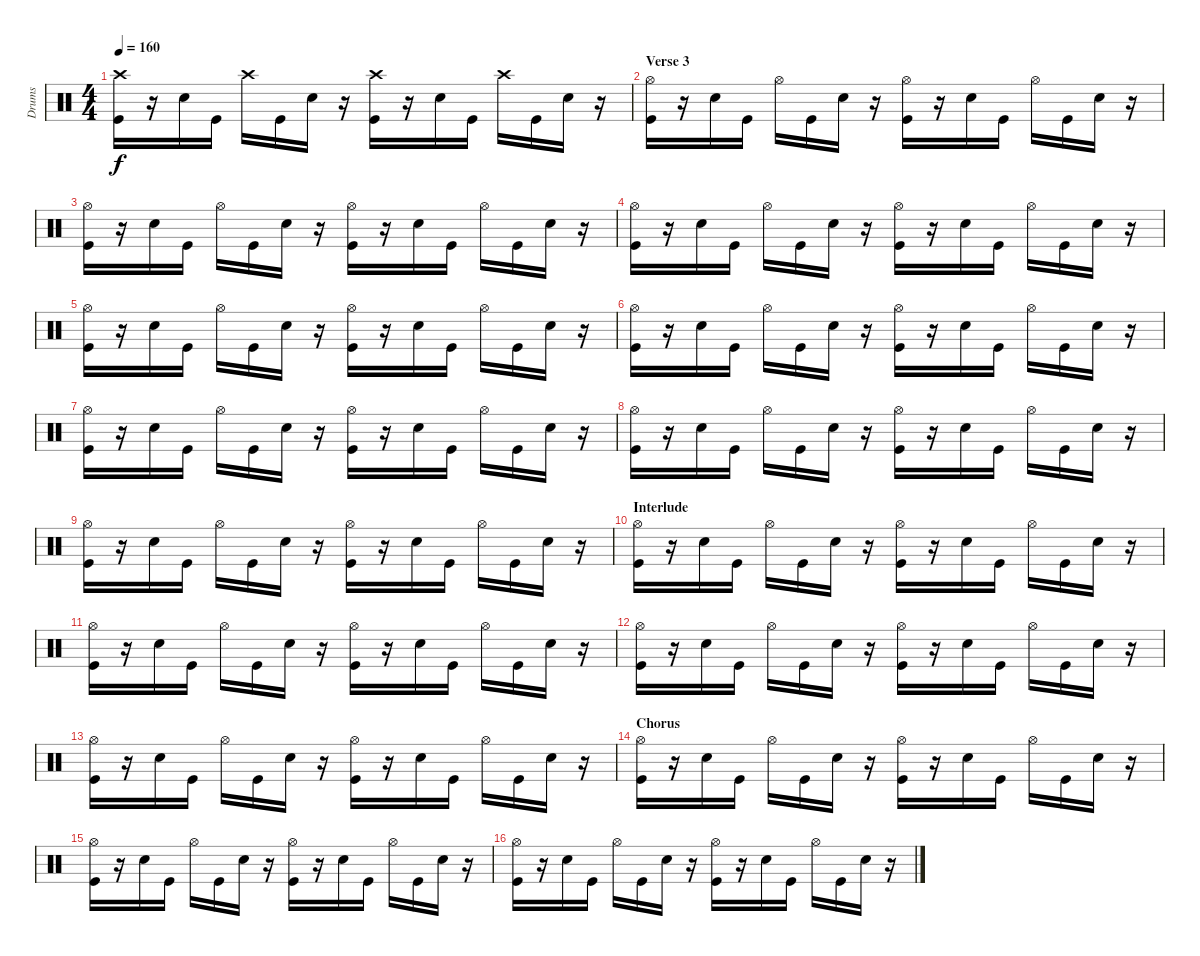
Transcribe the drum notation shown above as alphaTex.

\track ("Drums" "Drums") {instrument percussion}
\staff {score}
\articulation defaults
\ts (4 4)
\tempo 160
\clef neutral
\ks c
("Kick (hit)" "Crash high (hit)").16{dy f} r.16 "Snare (hit) 2".16 "Kick (hit)".16 "Crash high (hit)".16 "Kick (hit)".16 "Snare (hit) 2".16 r.16 ("Kick (hit)" "Crash high (hit)").16 r.16 "Snare (hit) 2".16 "Kick (hit)".16 "Crash high (hit)".16 "Kick (hit)".16 "Snare (hit) 2".16 r.16 |
\section ("" "Verse 3")
("Kick (hit)" "Hi-Hat (open)").16 r.16 "Snare (hit) 2".16 "Kick (hit)".16 "Hi-Hat (open)".16 "Kick (hit)".16 "Snare (hit) 2".16 r.16 ("Kick (hit)" "Hi-Hat (open)").16 r.16 "Snare (hit) 2".16 "Kick (hit)".16 "Hi-Hat (open)".16 "Kick (hit)".16 "Snare (hit) 2".16 r.16 |
("Kick (hit)" "Hi-Hat (open)").16 r.16 "Snare (hit) 2".16 "Kick (hit)".16 "Hi-Hat (open)".16 "Kick (hit)".16 "Snare (hit) 2".16 r.16 ("Kick (hit)" "Hi-Hat (open)").16 r.16 "Snare (hit) 2".16 "Kick (hit)".16 "Hi-Hat (open)".16 "Kick (hit)".16 "Snare (hit) 2".16 r.16 |
("Kick (hit)" "Hi-Hat (open)").16 r.16 "Snare (hit) 2".16 "Kick (hit)".16 "Hi-Hat (open)".16 "Kick (hit)".16 "Snare (hit) 2".16 r.16 ("Kick (hit)" "Hi-Hat (open)").16 r.16 "Snare (hit) 2".16 "Kick (hit)".16 "Hi-Hat (open)".16 "Kick (hit)".16 "Snare (hit) 2".16 r.16 |
("Kick (hit)" "Hi-Hat (open)").16 r.16 "Snare (hit) 2".16 "Kick (hit)".16 "Hi-Hat (open)".16 "Kick (hit)".16 "Snare (hit) 2".16 r.16 ("Kick (hit)" "Hi-Hat (open)").16 r.16 "Snare (hit) 2".16 "Kick (hit)".16 "Hi-Hat (open)".16 "Kick (hit)".16 "Snare (hit) 2".16 r.16 |
("Kick (hit)" "Hi-Hat (open)").16 r.16 "Snare (hit) 2".16 "Kick (hit)".16 "Hi-Hat (open)".16 "Kick (hit)".16 "Snare (hit) 2".16 r.16 ("Kick (hit)" "Hi-Hat (open)").16 r.16 "Snare (hit) 2".16 "Kick (hit)".16 "Hi-Hat (open)".16 "Kick (hit)".16 "Snare (hit) 2".16 r.16 |
("Kick (hit)" "Hi-Hat (open)").16 r.16 "Snare (hit) 2".16 "Kick (hit)".16 "Hi-Hat (open)".16 "Kick (hit)".16 "Snare (hit) 2".16 r.16 ("Kick (hit)" "Hi-Hat (open)").16 r.16 "Snare (hit) 2".16 "Kick (hit)".16 "Hi-Hat (open)".16 "Kick (hit)".16 "Snare (hit) 2".16 r.16 |
("Kick (hit)" "Hi-Hat (open)").16 r.16 "Snare (hit) 2".16 "Kick (hit)".16 "Hi-Hat (open)".16 "Kick (hit)".16 "Snare (hit) 2".16 r.16 ("Kick (hit)" "Hi-Hat (open)").16 r.16 "Snare (hit) 2".16 "Kick (hit)".16 "Hi-Hat (open)".16 "Kick (hit)".16 "Snare (hit) 2".16 r.16 |
("Kick (hit)" "Hi-Hat (open)").16 r.16 "Snare (hit) 2".16 "Kick (hit)".16 "Hi-Hat (open)".16 "Kick (hit)".16 "Snare (hit) 2".16 r.16 ("Kick (hit)" "Hi-Hat (open)").16 r.16 "Snare (hit) 2".16 "Kick (hit)".16 "Hi-Hat (open)".16 "Kick (hit)".16 "Snare (hit) 2".16 r.16 |
\section ("" "Interlude")
("Kick (hit)" "Hi-Hat (open)").16 r.16 "Snare (hit) 2".16 "Kick (hit)".16 "Hi-Hat (open)".16 "Kick (hit)".16 "Snare (hit) 2".16 r.16 ("Kick (hit)" "Hi-Hat (open)").16 r.16 "Snare (hit) 2".16 "Kick (hit)".16 "Hi-Hat (open)".16 "Kick (hit)".16 "Snare (hit) 2".16 r.16 |
("Kick (hit)" "Hi-Hat (open)").16 r.16 "Snare (hit) 2".16 "Kick (hit)".16 "Hi-Hat (open)".16 "Kick (hit)".16 "Snare (hit) 2".16 r.16 ("Kick (hit)" "Hi-Hat (open)").16 r.16 "Snare (hit) 2".16 "Kick (hit)".16 "Hi-Hat (open)".16 "Kick (hit)".16 "Snare (hit) 2".16 r.16 |
("Kick (hit)" "Hi-Hat (open)").16 r.16 "Snare (hit) 2".16 "Kick (hit)".16 "Hi-Hat (open)".16 "Kick (hit)".16 "Snare (hit) 2".16 r.16 ("Kick (hit)" "Hi-Hat (open)").16 r.16 "Snare (hit) 2".16 "Kick (hit)".16 "Hi-Hat (open)".16 "Kick (hit)".16 "Snare (hit) 2".16 r.16 |
("Kick (hit)" "Hi-Hat (open)").16 r.16 "Snare (hit) 2".16 "Kick (hit)".16 "Hi-Hat (open)".16 "Kick (hit)".16 "Snare (hit) 2".16 r.16 ("Kick (hit)" "Hi-Hat (open)").16 r.16 "Snare (hit) 2".16 "Kick (hit)".16 "Hi-Hat (open)".16 "Kick (hit)".16 "Snare (hit) 2".16 r.16 |
\section ("" "Chorus")
("Kick (hit)" "Hi-Hat (open)").16 r.16 "Snare (hit) 2".16 "Kick (hit)".16 "Hi-Hat (open)".16 "Kick (hit)".16 "Snare (hit) 2".16 r.16 ("Kick (hit)" "Hi-Hat (open)").16 r.16 "Snare (hit) 2".16 "Kick (hit)".16 "Hi-Hat (open)".16 "Kick (hit)".16 "Snare (hit) 2".16 r.16 |
("Kick (hit)" "Hi-Hat (open)").16 r.16 "Snare (hit) 2".16 "Kick (hit)".16 "Hi-Hat (open)".16 "Kick (hit)".16 "Snare (hit) 2".16 r.16 ("Kick (hit)" "Hi-Hat (open)").16 r.16 "Snare (hit) 2".16 "Kick (hit)".16 "Hi-Hat (open)".16 "Kick (hit)".16 "Snare (hit) 2".16 r.16 |
("Kick (hit)" "Hi-Hat (open)").16 r.16 "Snare (hit) 2".16 "Kick (hit)".16 "Hi-Hat (open)".16 "Kick (hit)".16 "Snare (hit) 2".16 r.16 ("Kick (hit)" "Hi-Hat (open)").16 r.16 "Snare (hit) 2".16 "Kick (hit)".16 "Hi-Hat (open)".16 "Kick (hit)".16 "Snare (hit) 2".16 r.16
